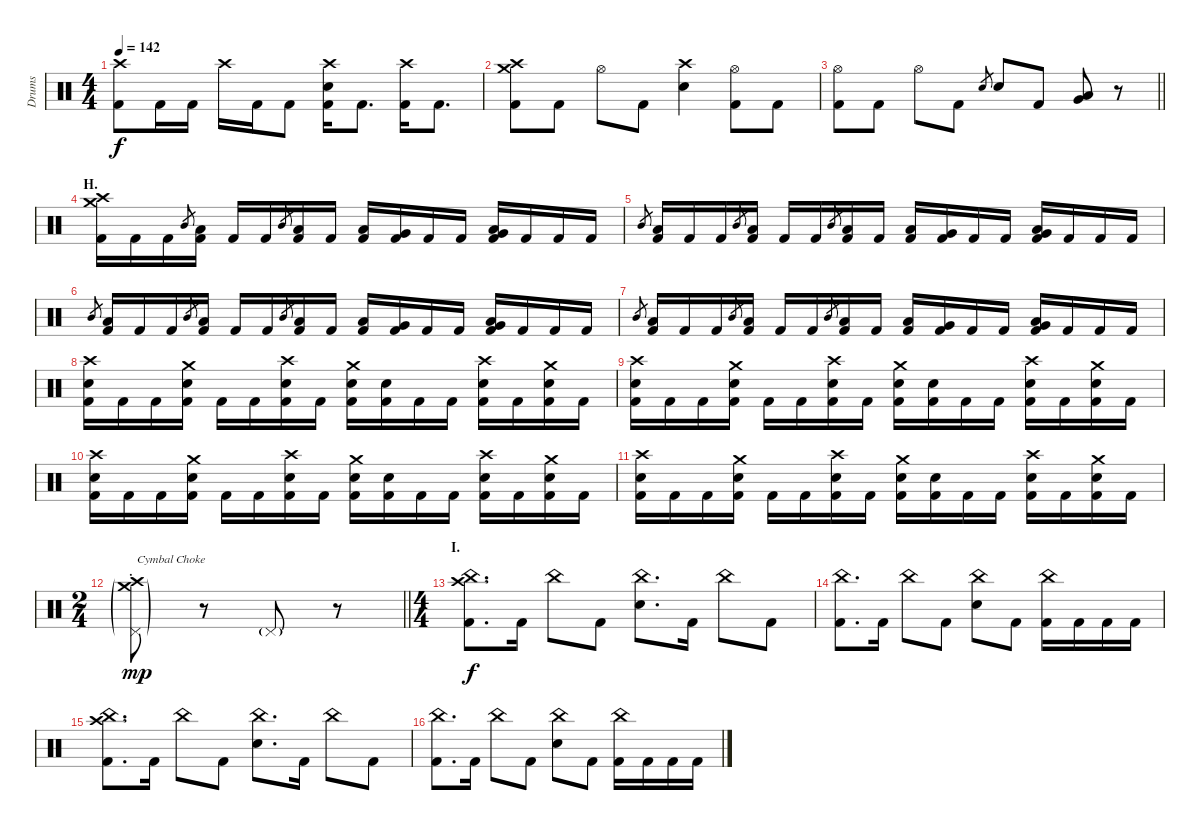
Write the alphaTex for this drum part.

\track ("Drums" "Drums") {instrument percussion}
\staff {score}
\articulation defaults
\ts (4 4)
\tempo 142
\clef neutral
\ks c
("Crash high (hit)" "Kick (hit) 2").8{dy f} "Kick (hit) 2".16 "Kick (hit) 2".16 "Crash high (hit)".16 "Kick (hit) 2".16 "Kick (hit) 2".8 ("Crash high (hit)" "Electric Snare (hit)" "Kick (hit) 2").16 "Kick (hit) 2".8{d} ("Crash high (hit)" "Kick (hit) 2").16 "Kick (hit) 2".8{d} |
("Crash medium (hit)" "Crash high (hit)" "Kick (hit) 2").8 "Kick (hit) 2".8 "Hi-Hat (open)".8 "Kick (hit) 2".8 ("Crash high (hit)" "Electric Snare (hit)").4 ("Hi-Hat (open)" "Kick (hit) 2").8 "Kick (hit) 2".8 |
\barLineRight lightlight
("Hi-Hat (open)" "Kick (hit) 2").8 "Kick (hit) 2".8 "Hi-Hat (open)".8 "Kick (hit) 2".8 "Electric Snare (hit)".8{gr} "Electric Snare (hit)".8 "Kick (hit) 2".8 ("Very Low Tom (hit)" "Low Floor Tom (hit)").8{bu 120} r.8 |
\section ("" "H.")
("Crash medium (hit)" "Crash high (hit)" "Kick (hit) 2").16 "Kick (hit) 2".16 "Kick (hit) 2".16 "Mid Tom (hit)".8{gr} ("Low Tom (hit)" "Kick (hit) 2").16 "Kick (hit) 2".16 "Kick (hit) 2".16 "Mid Tom (hit)".8{gr} ("Low Tom (hit)" "Kick (hit) 2").16 "Kick (hit) 2".16 ("Low Floor Tom (hit)" "Kick (hit) 2").16 ("Very Low Tom (hit)" "Kick (hit) 2").16 "Kick (hit) 2".16 "Kick (hit) 2".16 ("Very Low Tom (hit)" "Low Floor Tom (hit)" "Kick (hit) 2").16 "Kick (hit) 2".16 "Kick (hit) 2".16 "Kick (hit) 2".16 |
"Mid Tom (hit)".8{gr} ("Low Tom (hit)" "Kick (hit) 2").16 "Kick (hit) 2".16 "Kick (hit) 2".16 "Mid Tom (hit)".8{gr} ("Low Tom (hit)" "Kick (hit) 2").16 "Kick (hit) 2".16 "Kick (hit) 2".16 "Mid Tom (hit)".8{gr} ("Low Tom (hit)" "Kick (hit) 2").16 "Kick (hit) 2".16 ("Low Floor Tom (hit)" "Kick (hit) 2").16 ("Very Low Tom (hit)" "Kick (hit) 2").16 "Kick (hit) 2".16 "Kick (hit) 2".16 ("Very Low Tom (hit)" "Low Floor Tom (hit)" "Kick (hit) 2").16 "Kick (hit) 2".16 "Kick (hit) 2".16 "Kick (hit) 2".16 |
"Mid Tom (hit)".8{gr} ("Low Tom (hit)" "Kick (hit) 2").16 "Kick (hit) 2".16 "Kick (hit) 2".16 "Mid Tom (hit)".8{gr} ("Low Tom (hit)" "Kick (hit) 2").16 "Kick (hit) 2".16 "Kick (hit) 2".16 "Mid Tom (hit)".8{gr} ("Low Tom (hit)" "Kick (hit) 2").16 "Kick (hit) 2".16 ("Low Floor Tom (hit)" "Kick (hit) 2").16 ("Very Low Tom (hit)" "Kick (hit) 2").16 "Kick (hit) 2".16 "Kick (hit) 2".16 ("Very Low Tom (hit)" "Low Floor Tom (hit)" "Kick (hit) 2").16 "Kick (hit) 2".16 "Kick (hit) 2".16 "Kick (hit) 2".16 |
"Mid Tom (hit)".8{gr} ("Low Tom (hit)" "Kick (hit) 2").16 "Kick (hit) 2".16 "Kick (hit) 2".16 "Mid Tom (hit)".8{gr} ("Low Tom (hit)" "Kick (hit) 2").16 "Kick (hit) 2".16 "Kick (hit) 2".16 "Mid Tom (hit)".8{gr} ("Low Tom (hit)" "Kick (hit) 2").16 "Kick (hit) 2".16 ("Low Floor Tom (hit)" "Kick (hit) 2").16 ("Very Low Tom (hit)" "Kick (hit) 2").16 "Kick (hit) 2".16 "Kick (hit) 2".16 ("Very Low Tom (hit)" "Low Floor Tom (hit)" "Kick (hit) 2").16 "Kick (hit) 2".16 "Kick (hit) 2".16 "Kick (hit) 2".16 |
("Crash high (hit)" "Electric Snare (hit)" "Kick (hit) 2").16 "Kick (hit) 2".16 "Kick (hit) 2".16 ("Crash medium (hit)" "Electric Snare (hit)" "Kick (hit) 2").16 "Kick (hit) 2".16 "Kick (hit) 2".16 ("Crash high (hit)" "Electric Snare (hit)" "Kick (hit) 2").16 "Kick (hit) 2".16 ("Crash medium (hit)" "Electric Snare (hit)" "Kick (hit) 2").16 ("Electric Snare (hit)" "Kick (hit) 2").16 "Kick (hit) 2".16 "Kick (hit) 2".16 ("Crash high (hit)" "Electric Snare (hit)" "Kick (hit) 2").16 "Kick (hit) 2".16 ("Crash medium (hit)" "Electric Snare (hit)" "Kick (hit) 2").16 "Kick (hit) 2".16 |
("Crash high (hit)" "Electric Snare (hit)" "Kick (hit) 2").16 "Kick (hit) 2".16 "Kick (hit) 2".16 ("Crash medium (hit)" "Electric Snare (hit)" "Kick (hit) 2").16 "Kick (hit) 2".16 "Kick (hit) 2".16 ("Crash high (hit)" "Electric Snare (hit)" "Kick (hit) 2").16 "Kick (hit) 2".16 ("Crash medium (hit)" "Electric Snare (hit)" "Kick (hit) 2").16 ("Electric Snare (hit)" "Kick (hit) 2").16 "Kick (hit) 2".16 "Kick (hit) 2".16 ("Crash high (hit)" "Electric Snare (hit)" "Kick (hit) 2").16 "Kick (hit) 2".16 ("Crash medium (hit)" "Electric Snare (hit)" "Kick (hit) 2").16 "Kick (hit) 2".16 |
("Crash high (hit)" "Electric Snare (hit)" "Kick (hit) 2").16 "Kick (hit) 2".16 "Kick (hit) 2".16 ("Crash medium (hit)" "Electric Snare (hit)" "Kick (hit) 2").16 "Kick (hit) 2".16 "Kick (hit) 2".16 ("Crash high (hit)" "Electric Snare (hit)" "Kick (hit) 2").16 "Kick (hit) 2".16 ("Crash medium (hit)" "Electric Snare (hit)" "Kick (hit) 2").16 ("Electric Snare (hit)" "Kick (hit) 2").16 "Kick (hit) 2".16 "Kick (hit) 2".16 ("Crash high (hit)" "Electric Snare (hit)" "Kick (hit) 2").16 "Kick (hit) 2".16 ("Crash medium (hit)" "Electric Snare (hit)" "Kick (hit) 2").16 "Kick (hit) 2".16 |
("Crash high (hit)" "Electric Snare (hit)" "Kick (hit) 2").16 "Kick (hit) 2".16 "Kick (hit) 2".16 ("Crash medium (hit)" "Electric Snare (hit)" "Kick (hit) 2").16 "Kick (hit) 2".16 "Kick (hit) 2".16 ("Crash high (hit)" "Electric Snare (hit)" "Kick (hit) 2").16 "Kick (hit) 2".16 ("Crash medium (hit)" "Electric Snare (hit)" "Kick (hit) 2").16 ("Electric Snare (hit)" "Kick (hit) 2").16 "Kick (hit) 2".16 "Kick (hit) 2".16 ("Crash high (hit)" "Electric Snare (hit)" "Kick (hit) 2").16 "Kick (hit) 2".16 ("Crash medium (hit)" "Electric Snare (hit)" "Kick (hit) 2").16 "Kick (hit) 2".16 |
\ts (2 4)
\barLineRight lightlight
("Crash medium (hit)"{g st} "Crash high (hit)"{g st} "Pedal Hi-Hat (hit)"{g}).8{txt "Cymbal Choke" dy mp} r.8 "Pedal Hi-Hat (hit)"{g}.8 r.8 |
\ts (4 4)
\section ("" "I.")
("China (hit)" "Crash high (hit)" "Kick (hit) 2").8{d dy f} "Kick (hit) 2".16 "China (hit)".8 "Kick (hit) 2".8 ("China (hit)" "Electric Snare (hit)").8{d} "Kick (hit) 2".16 "China (hit)".8 "Kick (hit) 2".8 |
("China (hit)" "Kick (hit) 2").8{d} "Kick (hit) 2".16 "China (hit)".8 "Kick (hit) 2".8 ("China (hit)" "Electric Snare (hit)").8 "Kick (hit) 2".8 ("China (hit)" "Kick (hit) 2").16 "Kick (hit) 2".16 "Kick (hit) 2".16 "Kick (hit) 2".16 |
("China (hit)" "Crash high (hit)" "Kick (hit) 2").8{d} "Kick (hit) 2".16 "China (hit)".8 "Kick (hit) 2".8 ("China (hit)" "Electric Snare (hit)").8{d} "Kick (hit) 2".16 "China (hit)".8 "Kick (hit) 2".8 |
("China (hit)" "Kick (hit) 2").8{d} "Kick (hit) 2".16 "China (hit)".8 "Kick (hit) 2".8 ("China (hit)" "Electric Snare (hit)").8 "Kick (hit) 2".8 ("China (hit)" "Kick (hit) 2").16 "Kick (hit) 2".16 "Kick (hit) 2".16 "Kick (hit) 2".16
